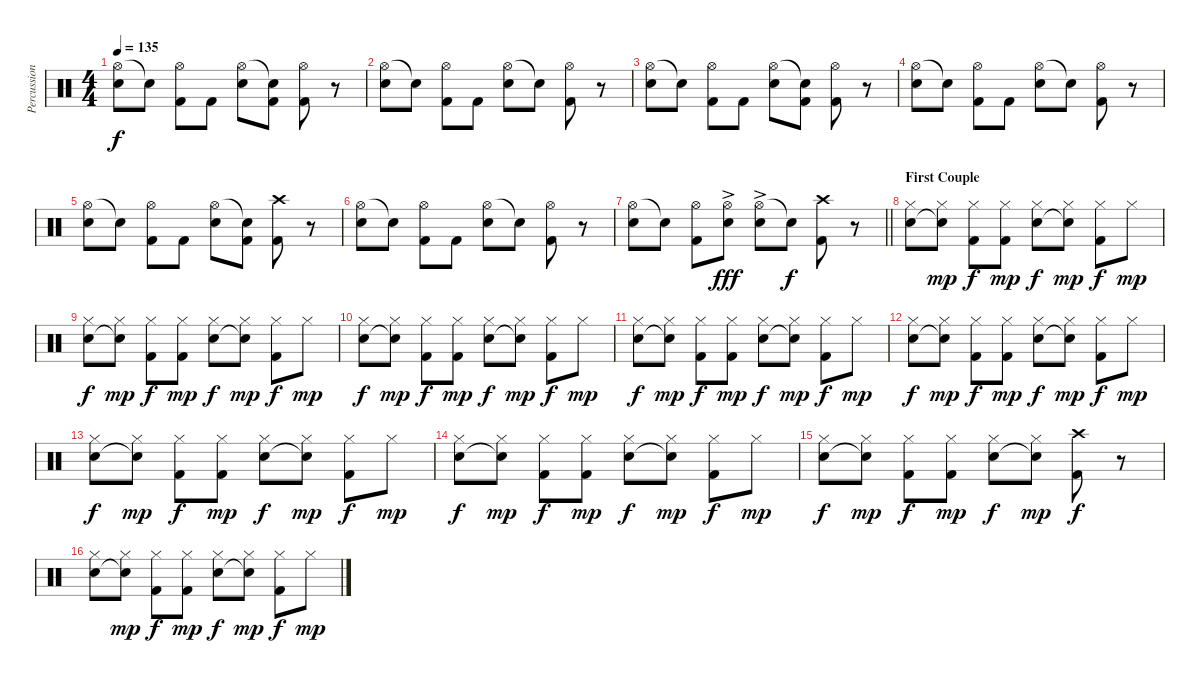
\track ("Percussion" "Percussion") {instrument percussion}
\staff {score}
\articulation defaults
\ts (4 4)
\tempo 135
\clef neutral
\ks c
("Hi-Hat (open)" "Electric Snare (hit)").8{dy f} "Electric Snare (hit)"{t}.8 ("Hi-Hat (open)" "Kick (hit) 2").8 "Kick (hit) 2".8 ("Hi-Hat (open)" "Electric Snare (hit)").8 ("Electric Snare (hit)"{t} "Kick (hit) 2").8 ("Hi-Hat (open)" "Kick (hit) 2").8 r.8 |
("Hi-Hat (open)" "Electric Snare (hit)").8 "Electric Snare (hit)"{t}.8 ("Hi-Hat (open)" "Kick (hit) 2").8 "Kick (hit) 2".8 ("Hi-Hat (open)" "Electric Snare (hit)").8 "Electric Snare (hit)"{t}.8 ("Hi-Hat (open)" "Kick (hit) 2").8 r.8 |
("Hi-Hat (open)" "Electric Snare (hit)").8 "Electric Snare (hit)"{t}.8 ("Hi-Hat (open)" "Kick (hit) 2").8 "Kick (hit) 2".8 ("Hi-Hat (open)" "Electric Snare (hit)").8 ("Electric Snare (hit)"{t} "Kick (hit) 2").8 ("Hi-Hat (open)" "Kick (hit) 2").8 r.8 |
("Hi-Hat (open)" "Electric Snare (hit)").8 "Electric Snare (hit)"{t}.8 ("Hi-Hat (open)" "Kick (hit) 2").8 "Kick (hit) 2".8 ("Hi-Hat (open)" "Electric Snare (hit)").8 "Electric Snare (hit)"{t}.8 ("Hi-Hat (open)" "Kick (hit) 2").8 r.8 |
("Hi-Hat (open)" "Electric Snare (hit)").8 "Electric Snare (hit)"{t}.8 ("Hi-Hat (open)" "Kick (hit) 2").8 "Kick (hit) 2".8 ("Hi-Hat (open)" "Electric Snare (hit)").8 ("Electric Snare (hit)"{t} "Kick (hit) 2").8 ("Crash high (hit)" "Kick (hit) 2").8 r.8 |
("Hi-Hat (open)" "Electric Snare (hit)").8 "Electric Snare (hit)"{t}.8 ("Hi-Hat (open)" "Kick (hit) 2").8 "Kick (hit) 2".8 ("Hi-Hat (open)" "Electric Snare (hit)").8 "Electric Snare (hit)"{t}.8 ("Hi-Hat (open)" "Kick (hit) 2").8 r.8 |
\barLineRight lightlight
("Hi-Hat (open)" "Electric Snare (hit)").8 "Electric Snare (hit)"{t}.8 ("Hi-Hat (open)" "Kick (hit) 2").8 ("Hi-Hat (open)"{ac} "Electric Snare (hit)").8{dy fff} ("Hi-Hat (open)"{ac} "Electric Snare (hit)").8 "Electric Snare (hit)"{t}.8{dy f} ("Crash high (hit)" "Kick (hit) 2").8 r.8 |
\section ("" "First Couple")
("Hi-Hat (closed)" "Electric Snare (hit)").8 ("Hi-Hat (closed)" "Electric Snare (hit)"{t}).8{dy mp} ("Hi-Hat (closed)" "Kick (hit) 2").8{dy f} ("Hi-Hat (closed)" "Kick (hit) 2").8{dy mp} ("Hi-Hat (closed)" "Electric Snare (hit)").8{dy f} ("Hi-Hat (closed)" "Electric Snare (hit)"{t}).8{dy mp} ("Hi-Hat (closed)" "Kick (hit) 2").8{dy f} "Hi-Hat (closed)".8{dy mp} |
("Hi-Hat (closed)" "Electric Snare (hit)").8{dy f} ("Hi-Hat (closed)" "Electric Snare (hit)"{t}).8{dy mp} ("Hi-Hat (closed)" "Kick (hit) 2").8{dy f} ("Hi-Hat (closed)" "Kick (hit) 2").8{dy mp} ("Hi-Hat (closed)" "Electric Snare (hit)").8{dy f} ("Hi-Hat (closed)" "Electric Snare (hit)"{t}).8{dy mp} ("Hi-Hat (closed)" "Kick (hit) 2").8{dy f} "Hi-Hat (closed)".8{dy mp} |
("Hi-Hat (closed)" "Electric Snare (hit)").8{dy f} ("Hi-Hat (closed)" "Electric Snare (hit)"{t}).8{dy mp} ("Hi-Hat (closed)" "Kick (hit) 2").8{dy f} ("Hi-Hat (closed)" "Kick (hit) 2").8{dy mp} ("Hi-Hat (closed)" "Electric Snare (hit)").8{dy f} ("Hi-Hat (closed)" "Electric Snare (hit)"{t}).8{dy mp} ("Hi-Hat (closed)" "Kick (hit) 2").8{dy f} "Hi-Hat (closed)".8{dy mp} |
("Hi-Hat (closed)" "Electric Snare (hit)").8{dy f} ("Hi-Hat (closed)" "Electric Snare (hit)"{t}).8{dy mp} ("Hi-Hat (closed)" "Kick (hit) 2").8{dy f} ("Hi-Hat (closed)" "Kick (hit) 2").8{dy mp} ("Hi-Hat (closed)" "Electric Snare (hit)").8{dy f} ("Hi-Hat (closed)" "Electric Snare (hit)"{t}).8{dy mp} ("Hi-Hat (closed)" "Kick (hit) 2").8{dy f} "Hi-Hat (closed)".8{dy mp} |
("Hi-Hat (closed)" "Electric Snare (hit)").8{dy f} ("Hi-Hat (closed)" "Electric Snare (hit)"{t}).8{dy mp} ("Hi-Hat (closed)" "Kick (hit) 2").8{dy f} ("Hi-Hat (closed)" "Kick (hit) 2").8{dy mp} ("Hi-Hat (closed)" "Electric Snare (hit)").8{dy f} ("Hi-Hat (closed)" "Electric Snare (hit)"{t}).8{dy mp} ("Hi-Hat (closed)" "Kick (hit) 2").8{dy f} "Hi-Hat (closed)".8{dy mp} |
("Hi-Hat (closed)" "Electric Snare (hit)").8{dy f} ("Hi-Hat (closed)" "Electric Snare (hit)"{t}).8{dy mp} ("Hi-Hat (closed)" "Kick (hit) 2").8{dy f} ("Hi-Hat (closed)" "Kick (hit) 2").8{dy mp} ("Hi-Hat (closed)" "Electric Snare (hit)").8{dy f} ("Hi-Hat (closed)" "Electric Snare (hit)"{t}).8{dy mp} ("Hi-Hat (closed)" "Kick (hit) 2").8{dy f} "Hi-Hat (closed)".8{dy mp} |
("Hi-Hat (closed)" "Electric Snare (hit)").8{dy f} ("Hi-Hat (closed)" "Electric Snare (hit)"{t}).8{dy mp} ("Hi-Hat (closed)" "Kick (hit) 2").8{dy f} ("Hi-Hat (closed)" "Kick (hit) 2").8{dy mp} ("Hi-Hat (closed)" "Electric Snare (hit)").8{dy f} ("Hi-Hat (closed)" "Electric Snare (hit)"{t}).8{dy mp} ("Hi-Hat (closed)" "Kick (hit) 2").8{dy f} "Hi-Hat (closed)".8{dy mp} |
("Hi-Hat (closed)" "Electric Snare (hit)").8{dy f} ("Hi-Hat (closed)" "Electric Snare (hit)"{t}).8{dy mp} ("Hi-Hat (closed)" "Kick (hit) 2").8{dy f} ("Hi-Hat (closed)" "Kick (hit) 2").8{dy mp} ("Hi-Hat (closed)" "Electric Snare (hit)").8{dy f} ("Hi-Hat (closed)" "Electric Snare (hit)"{t}).8{dy mp} ("Crash high (hit)" "Kick (hit) 2").8{dy f} r.8 |
("Hi-Hat (closed)" "Electric Snare (hit)").8 ("Hi-Hat (closed)" "Electric Snare (hit)"{t}).8{dy mp} ("Hi-Hat (closed)" "Kick (hit) 2").8{dy f} ("Hi-Hat (closed)" "Kick (hit) 2").8{dy mp} ("Hi-Hat (closed)" "Electric Snare (hit)").8{dy f} ("Hi-Hat (closed)" "Electric Snare (hit)"{t}).8{dy mp} ("Hi-Hat (closed)" "Kick (hit) 2").8{dy f} "Hi-Hat (closed)".8{dy mp}
